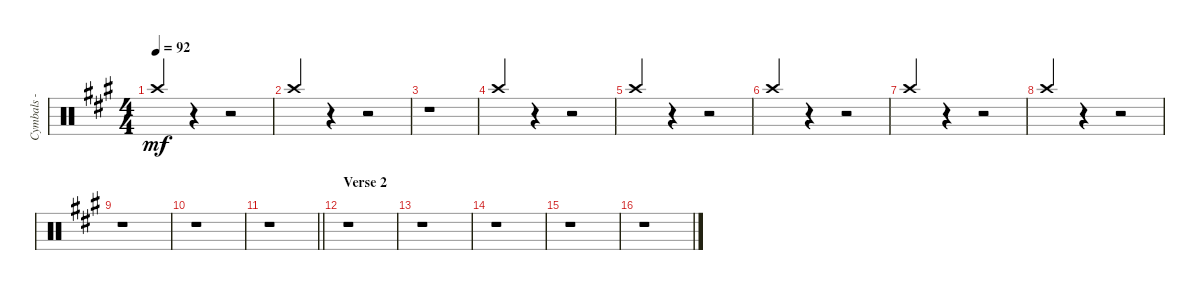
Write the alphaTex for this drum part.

\track ("Cymbals - crash" "Cymbals - ") {instrument percussion}
\staff {score}
\articulation defaults
\ts (4 4)
\tempo 92
\clef neutral
\ks f#minor "Crash high (hit)".4{dy mf beam Up}
r.4 r.2 |
"Crash high (hit)".4{beam Up} r.4 r.2 |
r.1 |
"Crash high (hit)".4{beam Up} r.4 r.2 |
"Crash high (hit)".4{beam Up} r.4 r.2 |
"Crash high (hit)".4{beam Up} r.4 r.2 |
"Crash high (hit)".4{beam Up} r.4 r.2 |
"Crash high (hit)".4{beam Up} r.4 r.2 |
r.1 |
r.1 |
\barLineRight lightlight
r.1 |
\section ("" "Verse 2")
r.1 |
r.1 |
r.1 |
r.1 |
r.1
